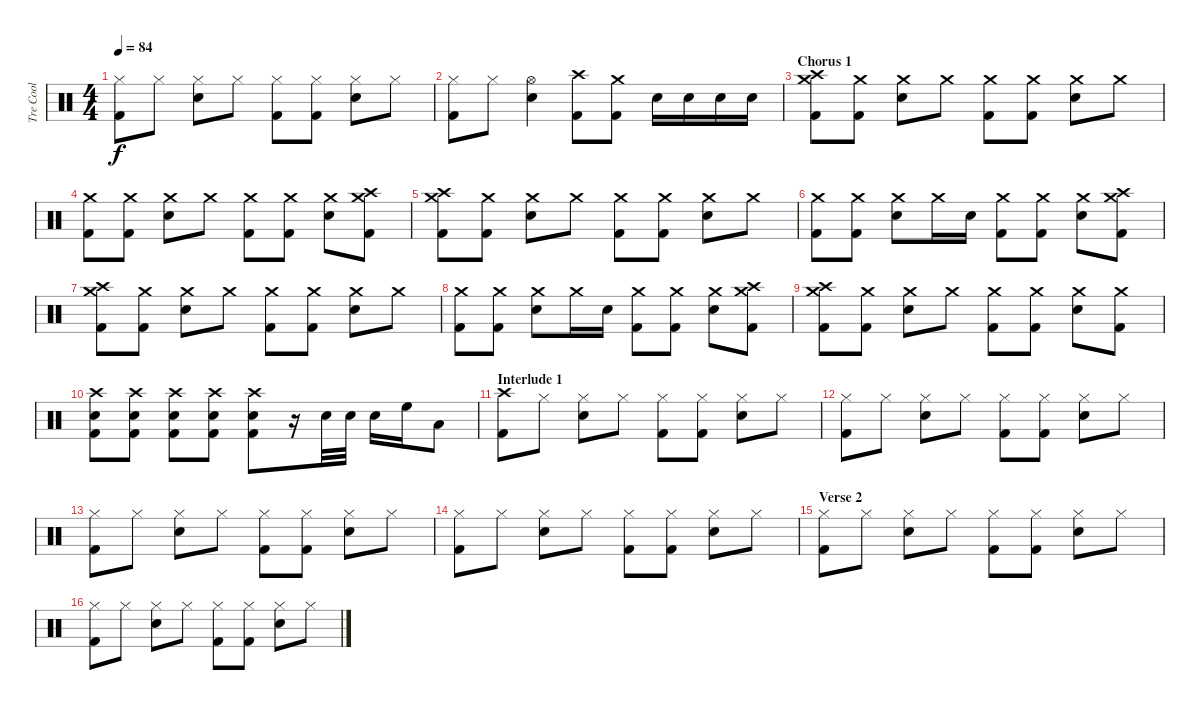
\track ("Tre Cool" "Tre Cool") {instrument percussion}
\staff {score}
\articulation defaults
\ts (4 4)
\tempo 84
\clef neutral
\ks c
("Hi-Hat (closed)" "Kick (hit) 2").8{dy f} "Hi-Hat (closed)".8 ("Hi-Hat (closed)" "Snare (hit) 2").8 "Hi-Hat (closed)".8 ("Hi-Hat (closed)" "Kick (hit) 2").8 ("Hi-Hat (closed)" "Kick (hit) 2").8 ("Hi-Hat (closed)" "Snare (hit) 2").8 "Hi-Hat (closed)".8 |
("Hi-Hat (closed)" "Kick (hit) 2").8 "Hi-Hat (closed)".8 ("Hi-Hat (open)" "Snare (hit) 2").4 ("Crash high (hit)" "Kick (hit) 2").8 ("Crash medium (hit)" "Kick (hit) 2").8 "Snare (hit) 2".16 "Snare (hit) 2".16 "Snare (hit) 2".16 "Snare (hit) 2".16 |
\section ("" "Chorus 1")
("Crash medium (hit)" "Crash high (hit)" "Kick (hit) 2").8 ("Crash medium (hit)" "Kick (hit) 2").8 ("Crash medium (hit)" "Snare (hit) 2").8 "Crash medium (hit)".8 ("Crash medium (hit)" "Kick (hit) 2").8 ("Crash medium (hit)" "Kick (hit) 2").8 ("Crash medium (hit)" "Snare (hit) 2").8 "Crash medium (hit)".8 |
("Crash medium (hit)" "Kick (hit) 2").8 ("Crash medium (hit)" "Kick (hit) 2").8 ("Crash medium (hit)" "Snare (hit) 2").8 "Crash medium (hit)".8 ("Crash medium (hit)" "Kick (hit) 2").8 ("Crash medium (hit)" "Kick (hit) 2").8 ("Crash medium (hit)" "Snare (hit) 2").8 ("Crash medium (hit)" "Crash high (hit)" "Kick (hit) 2").8 |
("Crash medium (hit)" "Crash high (hit)" "Kick (hit) 2").8 ("Crash medium (hit)" "Kick (hit) 2").8 ("Crash medium (hit)" "Snare (hit) 2").8 "Crash medium (hit)".8 ("Crash medium (hit)" "Kick (hit) 2").8 ("Crash medium (hit)" "Kick (hit) 2").8 ("Crash medium (hit)" "Snare (hit) 2").8 "Crash medium (hit)".8 |
("Crash medium (hit)" "Kick (hit) 2").8 ("Crash medium (hit)" "Kick (hit) 2").8 ("Crash medium (hit)" "Snare (hit) 2").8 "Crash medium (hit)".16 "Snare (hit) 2".16 ("Crash medium (hit)" "Kick (hit) 2").8 ("Crash medium (hit)" "Kick (hit) 2").8 ("Crash medium (hit)" "Snare (hit) 2").8 ("Crash medium (hit)" "Crash high (hit)" "Kick (hit) 2").8 |
("Crash medium (hit)" "Crash high (hit)" "Kick (hit) 2").8 ("Crash medium (hit)" "Kick (hit) 2").8 ("Crash medium (hit)" "Snare (hit) 2").8 "Crash medium (hit)".8 ("Crash medium (hit)" "Kick (hit) 2").8 ("Crash medium (hit)" "Kick (hit) 2").8 ("Crash medium (hit)" "Snare (hit) 2").8 "Crash medium (hit)".8 |
("Crash medium (hit)" "Kick (hit) 2").8 ("Crash medium (hit)" "Kick (hit) 2").8 ("Crash medium (hit)" "Snare (hit) 2").8 "Crash medium (hit)".16 "Snare (hit) 2".16 ("Crash medium (hit)" "Kick (hit) 2").8 ("Crash medium (hit)" "Kick (hit) 2").8 ("Crash medium (hit)" "Snare (hit) 2").8 ("Crash medium (hit)" "Crash high (hit)" "Kick (hit) 2").8 |
("Crash medium (hit)" "Crash high (hit)" "Kick (hit) 2").8 ("Crash medium (hit)" "Kick (hit) 2").8 ("Crash medium (hit)" "Snare (hit) 2").8 "Crash medium (hit)".8 ("Crash medium (hit)" "Kick (hit) 2").8 ("Crash medium (hit)" "Kick (hit) 2").8 ("Crash medium (hit)" "Snare (hit) 2").8 ("Crash medium (hit)" "Kick (hit) 2").8 |
("Crash high (hit)" "Snare (hit) 2" "Kick (hit) 2").8 ("Crash high (hit)" "Snare (hit) 2" "Kick (hit) 2").8 ("Crash high (hit)" "Snare (hit) 2" "Kick (hit) 2").8 ("Crash high (hit)" "Snare (hit) 2" "Kick (hit) 2").8 ("Crash high (hit)" "Snare (hit) 2" "Kick (hit) 2").8 r.16 "Snare (hit) 2".32 "Snare (hit) 2".32 "Snare (hit) 2".16 "High Floor Tom (hit)".16 "Low Tom (hit)".8 |
\section ("" "Interlude 1")
("Crash high (hit)" "Kick (hit) 2").8 "Hi-Hat (closed)".8 ("Hi-Hat (closed)" "Snare (hit) 2").8 "Hi-Hat (closed)".8 ("Hi-Hat (closed)" "Kick (hit) 2").8 ("Hi-Hat (closed)" "Kick (hit) 2").8 ("Hi-Hat (closed)" "Snare (hit) 2").8 "Hi-Hat (closed)".8 |
("Hi-Hat (closed)" "Kick (hit) 2").8 "Hi-Hat (closed)".8 ("Hi-Hat (closed)" "Snare (hit) 2").8 "Hi-Hat (closed)".8 ("Hi-Hat (closed)" "Kick (hit) 2").8 ("Hi-Hat (closed)" "Kick (hit) 2").8 ("Hi-Hat (closed)" "Snare (hit) 2").8 "Hi-Hat (closed)".8 |
("Hi-Hat (closed)" "Kick (hit) 2").8 "Hi-Hat (closed)".8 ("Hi-Hat (closed)" "Snare (hit) 2").8 "Hi-Hat (closed)".8 ("Hi-Hat (closed)" "Kick (hit) 2").8 ("Hi-Hat (closed)" "Kick (hit) 2").8 ("Hi-Hat (closed)" "Snare (hit) 2").8 "Hi-Hat (closed)".8 |
("Hi-Hat (closed)" "Kick (hit) 2").8 "Hi-Hat (closed)".8 ("Hi-Hat (closed)" "Snare (hit) 2").8 "Hi-Hat (closed)".8 ("Hi-Hat (closed)" "Kick (hit) 2").8 ("Hi-Hat (closed)" "Kick (hit) 2").8 ("Hi-Hat (closed)" "Snare (hit) 2").8 "Hi-Hat (closed)".8 |
\section ("" "Verse 2")
("Hi-Hat (closed)" "Kick (hit) 2").8 "Hi-Hat (closed)".8 ("Hi-Hat (closed)" "Snare (hit) 2").8 "Hi-Hat (closed)".8 ("Hi-Hat (closed)" "Kick (hit) 2").8 ("Hi-Hat (closed)" "Kick (hit) 2").8 ("Hi-Hat (closed)" "Snare (hit) 2").8 "Hi-Hat (closed)".8 |
("Hi-Hat (closed)" "Kick (hit) 2").8 "Hi-Hat (closed)".8 ("Hi-Hat (closed)" "Snare (hit) 2").8 "Hi-Hat (closed)".8 ("Hi-Hat (closed)" "Kick (hit) 2").8 ("Hi-Hat (closed)" "Kick (hit) 2").8 ("Hi-Hat (closed)" "Snare (hit) 2").8 "Hi-Hat (closed)".8
